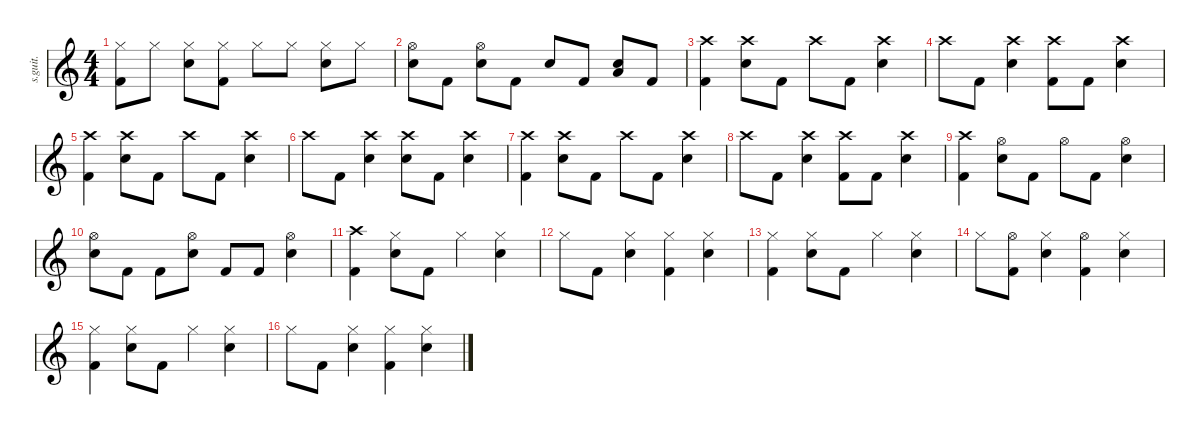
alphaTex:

\defaultSystemsLayout 4
\hideDynamics
\bracketExtendMode nobrackets
\track ("" "s.guit.") {instrument percussion}
\staff {score}
\articulation defaults
\ts (4 4)
\tempo (190 hide)
\clef g2
\ks c
("Hi-Hat (closed)" "Kick (hit) 2").8{dy f} "Hi-Hat (closed)".8 ("Hi-Hat (closed)" "Snare (hit) 2").8 ("Hi-Hat (closed)" "Kick (hit) 2").8 "Hi-Hat (closed)".8 "Hi-Hat (closed)".8 ("Hi-Hat (closed)" "Snare (hit) 2").8 "Hi-Hat (closed)".8 |
("Hi-Hat (open)" "Snare (hit) 2").8 "Kick (hit) 2".8 ("Hi-Hat (open)" "Snare (hit) 2").8 "Kick (hit) 2".8 "Snare (hit) 2".8 "Kick (hit) 2".8 ("Snare (hit) 2" "Low Floor Tom (hit)").8 "Kick (hit) 2".8 |
("Crash high (hit)" "Kick (hit) 2").4 ("Crash high (hit)" "Snare (hit) 2").8 "Kick (hit) 2".8 "Crash high (hit)".8 "Kick (hit) 2".8 ("Crash high (hit)" "Snare (hit) 2").4 |
"Crash high (hit)".8 "Kick (hit) 2".8 ("Crash high (hit)" "Snare (hit) 2").4 ("Crash high (hit)" "Kick (hit) 2").8 "Kick (hit) 2".8 ("Crash high (hit)" "Snare (hit) 2").4 |
("Crash high (hit)" "Kick (hit) 2").4 ("Crash high (hit)" "Snare (hit) 2").8 "Kick (hit) 2".8 "Crash high (hit)".8 "Kick (hit) 2".8 ("Crash high (hit)" "Snare (hit) 2").4 |
"Crash high (hit)".8 "Kick (hit) 2".8 ("Crash high (hit)" "Snare (hit) 2").4 ("Crash high (hit)" "Snare (hit) 2").8 "Kick (hit) 2".8 ("Crash high (hit)" "Snare (hit) 2").4 |
("Crash high (hit)" "Kick (hit) 2").4 ("Crash high (hit)" "Snare (hit) 2").8 "Kick (hit) 2".8 "Crash high (hit)".8 "Kick (hit) 2".8 ("Crash high (hit)" "Snare (hit) 2").4 |
"Crash high (hit)".8 "Kick (hit) 2".8 ("Crash high (hit)" "Snare (hit) 2").4 ("Crash high (hit)" "Kick (hit) 2").8 "Kick (hit) 2".8 ("Crash high (hit)" "Snare (hit) 2").4 |
("Crash high (hit)" "Kick (hit) 2").4 ("Hi-Hat (open)" "Snare (hit) 2").8 "Kick (hit) 2".8 "Hi-Hat (open)".8 "Kick (hit) 2".8 ("Hi-Hat (open)" "Snare (hit) 2").4 |
("Hi-Hat (open)" "Snare (hit) 2").8 "Kick (hit) 2".8 "Kick (hit) 2".8 ("Hi-Hat (open)" "Snare (hit) 2").8 "Kick (hit) 2".8 "Kick (hit) 2".8 ("Hi-Hat (open)" "Snare (hit) 2").4 |
("Crash high (hit)" "Kick (hit) 2").4 ("Hi-Hat (closed)" "Snare (hit) 2").8 "Kick (hit) 2".8 "Hi-Hat (closed)".4 ("Hi-Hat (closed)" "Snare (hit) 2").4 |
"Hi-Hat (closed)".8 "Kick (hit) 2".8 ("Hi-Hat (closed)" "Snare (hit) 2").4 ("Hi-Hat (closed)" "Kick (hit) 2").4 ("Hi-Hat (closed)" "Snare (hit) 2").4 |
("Hi-Hat (closed)" "Kick (hit) 2").4 ("Hi-Hat (closed)" "Snare (hit) 2").8 "Kick (hit) 2".8 "Hi-Hat (closed)".4 ("Hi-Hat (closed)" "Snare (hit) 2").4 |
"Hi-Hat (closed)".8 ("Hi-Hat (open)" "Kick (hit) 2").8 ("Hi-Hat (closed)" "Snare (hit) 2").4 ("Hi-Hat (open)" "Kick (hit) 2").4 ("Hi-Hat (closed)" "Snare (hit) 2").4 |
("Hi-Hat (closed)" "Kick (hit) 2").4 ("Hi-Hat (closed)" "Snare (hit) 2").8 "Kick (hit) 2".8 "Hi-Hat (closed)".4 ("Hi-Hat (closed)" "Snare (hit) 2").4 |
"Hi-Hat (closed)".8 "Kick (hit) 2".8 ("Hi-Hat (closed)" "Snare (hit) 2").4 ("Hi-Hat (closed)" "Kick (hit) 2").4 ("Hi-Hat (closed)" "Snare (hit) 2").4
